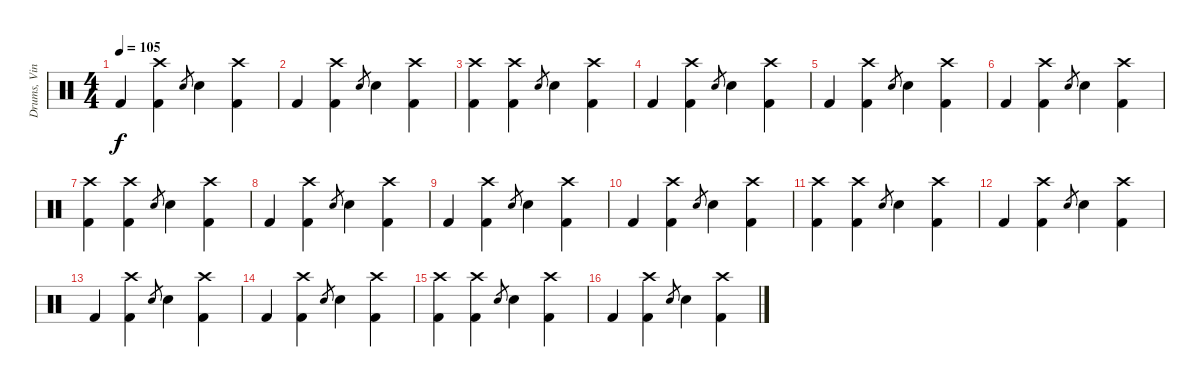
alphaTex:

\track ("Drums, Vinnie" "Drums, Vin") {instrument percussion}
\staff {score}
\articulation defaults
\ts (4 4)
\tempo 105
\clef neutral
\ks c "Kick (hit) 2".4{dy f}
("Crash high (hit)" "Kick (hit) 2").4 "Electric Snare (hit)".8{gr} "Electric Snare (hit)".4 ("Crash high (hit)" "Kick (hit) 2").4 |
"Kick (hit) 2".4 ("Crash high (hit)" "Kick (hit) 2").4 "Electric Snare (hit)".8{gr} "Electric Snare (hit)".4 ("Crash high (hit)" "Kick (hit) 2").4 |
("Crash high (hit)" "Kick (hit) 2").4 ("Crash high (hit)" "Kick (hit) 2").4 "Electric Snare (hit)".8{gr} "Electric Snare (hit)".4 ("Crash high (hit)" "Kick (hit) 2").4 |
"Kick (hit) 2".4 ("Crash high (hit)" "Kick (hit) 2").4 "Electric Snare (hit)".8{gr} "Electric Snare (hit)".4 ("Crash high (hit)" "Kick (hit) 2").4 |
"Kick (hit) 2".4 ("Crash high (hit)" "Kick (hit) 2").4 "Electric Snare (hit)".8{gr} "Electric Snare (hit)".4 ("Crash high (hit)" "Kick (hit) 2").4 |
"Kick (hit) 2".4 ("Crash high (hit)" "Kick (hit) 2").4 "Electric Snare (hit)".8{gr} "Electric Snare (hit)".4 ("Crash high (hit)" "Kick (hit) 2").4 |
("Crash high (hit)" "Kick (hit) 2").4 ("Crash high (hit)" "Kick (hit) 2").4 "Electric Snare (hit)".8{gr} "Electric Snare (hit)".4 ("Crash high (hit)" "Kick (hit) 2").4 |
"Kick (hit) 2".4 ("Crash high (hit)" "Kick (hit) 2").4 "Electric Snare (hit)".8{gr} "Electric Snare (hit)".4 ("Crash high (hit)" "Kick (hit) 2").4 |
"Kick (hit) 2".4 ("Crash high (hit)" "Kick (hit) 2").4 "Electric Snare (hit)".8{gr} "Electric Snare (hit)".4 ("Crash high (hit)" "Kick (hit) 2").4 |
"Kick (hit) 2".4 ("Crash high (hit)" "Kick (hit) 2").4 "Electric Snare (hit)".8{gr} "Electric Snare (hit)".4 ("Crash high (hit)" "Kick (hit) 2").4 |
("Crash high (hit)" "Kick (hit) 2").4 ("Crash high (hit)" "Kick (hit) 2").4 "Electric Snare (hit)".8{gr} "Electric Snare (hit)".4 ("Crash high (hit)" "Kick (hit) 2").4 |
"Kick (hit) 2".4 ("Crash high (hit)" "Kick (hit) 2").4 "Electric Snare (hit)".8{gr} "Electric Snare (hit)".4 ("Crash high (hit)" "Kick (hit) 2").4 |
"Kick (hit) 2".4 ("Crash high (hit)" "Kick (hit) 2").4 "Electric Snare (hit)".8{gr} "Electric Snare (hit)".4 ("Crash high (hit)" "Kick (hit) 2").4 |
"Kick (hit) 2".4 ("Crash high (hit)" "Kick (hit) 2").4 "Electric Snare (hit)".8{gr} "Electric Snare (hit)".4 ("Crash high (hit)" "Kick (hit) 2").4 |
("Crash high (hit)" "Kick (hit) 2").4{volume 6} ("Crash high (hit)" "Kick (hit) 2").4 "Electric Snare (hit)".8{gr} "Electric Snare (hit)".4 ("Crash high (hit)" "Kick (hit) 2").4 |
"Kick (hit) 2".4 ("Crash high (hit)" "Kick (hit) 2").4 "Electric Snare (hit)".8{gr} "Electric Snare (hit)".4 ("Crash high (hit)" "Kick (hit) 2").4
